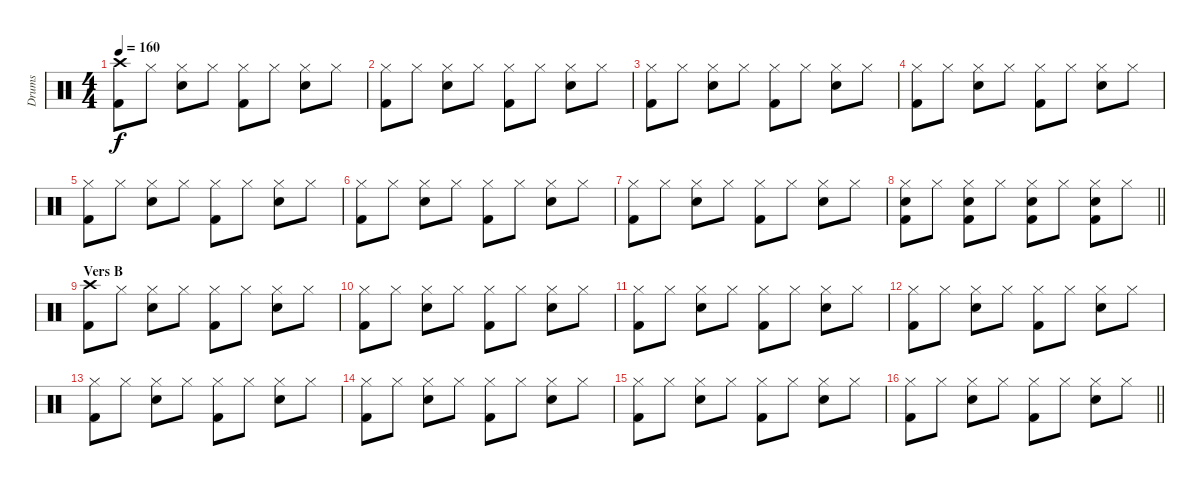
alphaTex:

\track ("Drums" "Drums") {instrument percussion}
\staff {score}
\articulation defaults
\ts (4 4)
\tempo 160
\clef neutral
\ks c
("Crash high (hit)" "Kick (hit) 2").8{dy f} "Hi-Hat (closed)".8 ("Hi-Hat (closed)" "Snare (hit) 2").8 "Hi-Hat (closed)".8 ("Hi-Hat (closed)" "Kick (hit) 2").8 "Hi-Hat (closed)".8 ("Hi-Hat (closed)" "Snare (hit) 2").8 "Hi-Hat (closed)".8 |
("Hi-Hat (closed)" "Kick (hit) 2").8 "Hi-Hat (closed)".8 ("Hi-Hat (closed)" "Snare (hit) 2").8 "Hi-Hat (closed)".8 ("Hi-Hat (closed)" "Kick (hit) 2").8 "Hi-Hat (closed)".8 ("Hi-Hat (closed)" "Snare (hit) 2").8 "Hi-Hat (closed)".8 |
("Hi-Hat (closed)" "Kick (hit) 2").8 "Hi-Hat (closed)".8 ("Hi-Hat (closed)" "Snare (hit) 2").8 "Hi-Hat (closed)".8 ("Hi-Hat (closed)" "Kick (hit) 2").8 "Hi-Hat (closed)".8 ("Hi-Hat (closed)" "Snare (hit) 2").8 "Hi-Hat (closed)".8 |
("Hi-Hat (closed)" "Kick (hit) 2").8 "Hi-Hat (closed)".8 ("Hi-Hat (closed)" "Snare (hit) 2").8 "Hi-Hat (closed)".8 ("Hi-Hat (closed)" "Kick (hit) 2").8 "Hi-Hat (closed)".8 ("Hi-Hat (closed)" "Snare (hit) 2").8 "Hi-Hat (closed)".8 |
("Hi-Hat (closed)" "Kick (hit) 2").8 "Hi-Hat (closed)".8 ("Hi-Hat (closed)" "Snare (hit) 2").8 "Hi-Hat (closed)".8 ("Hi-Hat (closed)" "Kick (hit) 2").8 "Hi-Hat (closed)".8 ("Hi-Hat (closed)" "Snare (hit) 2").8 "Hi-Hat (closed)".8 |
("Hi-Hat (closed)" "Kick (hit) 2").8 "Hi-Hat (closed)".8 ("Hi-Hat (closed)" "Snare (hit) 2").8 "Hi-Hat (closed)".8 ("Hi-Hat (closed)" "Kick (hit) 2").8 "Hi-Hat (closed)".8 ("Hi-Hat (closed)" "Snare (hit) 2").8 "Hi-Hat (closed)".8 |
("Hi-Hat (closed)" "Kick (hit) 2").8 "Hi-Hat (closed)".8 ("Hi-Hat (closed)" "Snare (hit) 2").8 "Hi-Hat (closed)".8 ("Hi-Hat (closed)" "Kick (hit) 2").8 "Hi-Hat (closed)".8 ("Hi-Hat (closed)" "Snare (hit) 2").8 "Hi-Hat (closed)".8 |
\barLineRight lightlight
("Hi-Hat (closed)" "Snare (hit) 2" "Kick (hit) 2").8 "Hi-Hat (closed)".8 ("Hi-Hat (closed)" "Snare (hit) 2" "Kick (hit) 2").8 "Hi-Hat (closed)".8 ("Hi-Hat (closed)" "Snare (hit) 2" "Kick (hit) 2").8 "Hi-Hat (closed)".8 ("Hi-Hat (closed)" "Snare (hit) 2" "Kick (hit) 2").8 "Hi-Hat (closed)".8 |
\section ("" "Vers B")
("Crash high (hit)" "Kick (hit) 2").8 "Hi-Hat (closed)".8 ("Hi-Hat (closed)" "Snare (hit) 2").8 "Hi-Hat (closed)".8 ("Hi-Hat (closed)" "Kick (hit) 2").8 "Hi-Hat (closed)".8 ("Hi-Hat (closed)" "Snare (hit) 2").8 "Hi-Hat (closed)".8 |
("Hi-Hat (closed)" "Kick (hit) 2").8 "Hi-Hat (closed)".8 ("Hi-Hat (closed)" "Snare (hit) 2").8 "Hi-Hat (closed)".8 ("Hi-Hat (closed)" "Kick (hit) 2").8 "Hi-Hat (closed)".8 ("Hi-Hat (closed)" "Snare (hit) 2").8 "Hi-Hat (closed)".8 |
("Hi-Hat (closed)" "Kick (hit) 2").8 "Hi-Hat (closed)".8 ("Hi-Hat (closed)" "Snare (hit) 2").8 "Hi-Hat (closed)".8 ("Hi-Hat (closed)" "Kick (hit) 2").8 "Hi-Hat (closed)".8 ("Hi-Hat (closed)" "Snare (hit) 2").8 "Hi-Hat (closed)".8 |
("Hi-Hat (closed)" "Kick (hit) 2").8 "Hi-Hat (closed)".8 ("Hi-Hat (closed)" "Snare (hit) 2").8 "Hi-Hat (closed)".8 ("Hi-Hat (closed)" "Kick (hit) 2").8 "Hi-Hat (closed)".8 ("Hi-Hat (closed)" "Snare (hit) 2").8 "Hi-Hat (closed)".8 |
("Hi-Hat (closed)" "Kick (hit) 2").8 "Hi-Hat (closed)".8 ("Hi-Hat (closed)" "Snare (hit) 2").8 "Hi-Hat (closed)".8 ("Hi-Hat (closed)" "Kick (hit) 2").8 "Hi-Hat (closed)".8 ("Hi-Hat (closed)" "Snare (hit) 2").8 "Hi-Hat (closed)".8 |
("Hi-Hat (closed)" "Kick (hit) 2").8 "Hi-Hat (closed)".8 ("Hi-Hat (closed)" "Snare (hit) 2").8 "Hi-Hat (closed)".8 ("Hi-Hat (closed)" "Kick (hit) 2").8 "Hi-Hat (closed)".8 ("Hi-Hat (closed)" "Snare (hit) 2").8 "Hi-Hat (closed)".8 |
("Hi-Hat (closed)" "Kick (hit) 2").8 "Hi-Hat (closed)".8 ("Hi-Hat (closed)" "Snare (hit) 2").8 "Hi-Hat (closed)".8 ("Hi-Hat (closed)" "Kick (hit) 2").8 "Hi-Hat (closed)".8 ("Hi-Hat (closed)" "Snare (hit) 2").8 "Hi-Hat (closed)".8 |
\barLineRight lightlight
("Hi-Hat (closed)" "Kick (hit) 2").8 "Hi-Hat (closed)".8 ("Hi-Hat (closed)" "Snare (hit) 2").8 "Hi-Hat (closed)".8 ("Hi-Hat (closed)" "Kick (hit) 2").8 "Hi-Hat (closed)".8 ("Hi-Hat (closed)" "Snare (hit) 2").8 "Hi-Hat (closed)".8
